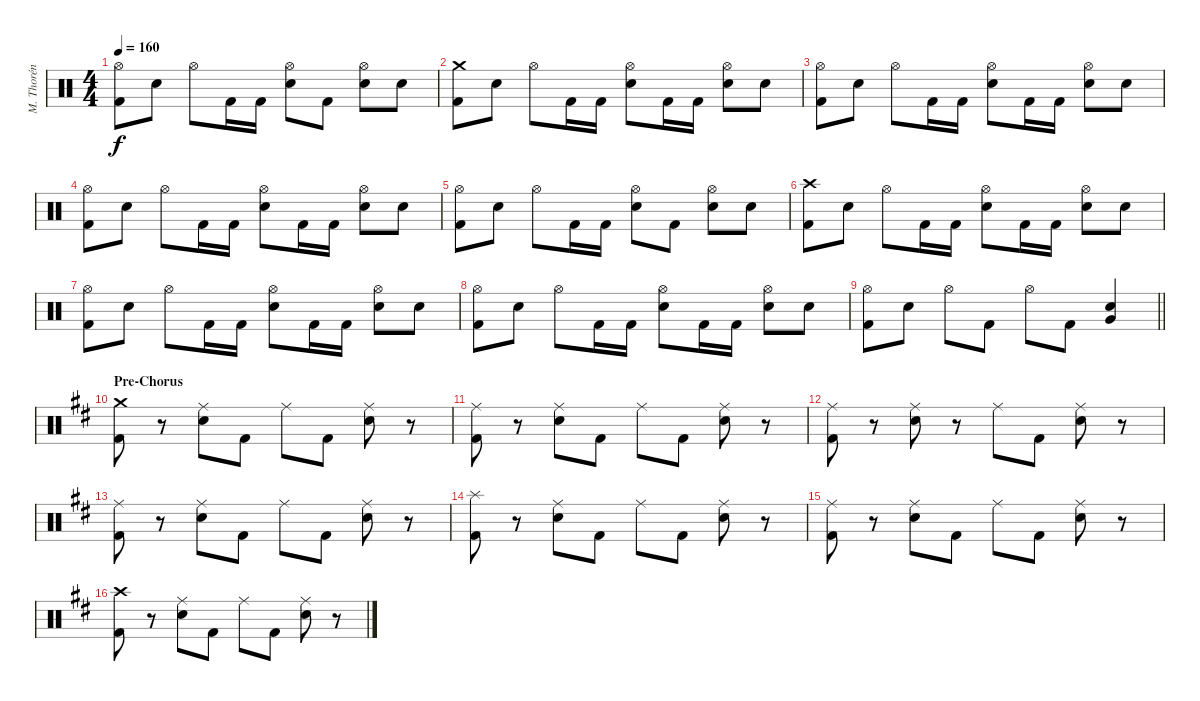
\track ("M. Thorén (Drums)" "M. Thorén ") {instrument percussion}
\staff {score}
\articulation defaults
\ts (4 4)
\tempo 160
\clef neutral
\ks c
("Hi-Hat (open)" "Kick (hit) 2").8{dy f} "Electric Snare (hit)".8 "Hi-Hat (open)".8 "Kick (hit) 2".16 "Kick (hit) 2".16 ("Hi-Hat (open)" "Electric Snare (hit)").8 "Kick (hit) 2".8 ("Hi-Hat (open)" "Electric Snare (hit)").8 "Electric Snare (hit)".8 |
("Crash medium (hit)" "Kick (hit) 2").8 "Electric Snare (hit)".8 "Hi-Hat (open)".8 "Kick (hit) 2".16 "Kick (hit) 2".16 ("Hi-Hat (open)" "Electric Snare (hit)").8 "Kick (hit) 2".16 "Kick (hit) 2".16 ("Hi-Hat (open)" "Electric Snare (hit)").8 "Electric Snare (hit)".8 |
("Hi-Hat (open)" "Kick (hit) 2").8 "Electric Snare (hit)".8 "Hi-Hat (open)".8 "Kick (hit) 2".16 "Kick (hit) 2".16 ("Hi-Hat (open)" "Electric Snare (hit)").8 "Kick (hit) 2".16 "Kick (hit) 2".16 ("Hi-Hat (open)" "Electric Snare (hit)").8 "Electric Snare (hit)".8 |
("Hi-Hat (open)" "Kick (hit) 2").8 "Electric Snare (hit)".8 "Hi-Hat (open)".8 "Kick (hit) 2".16 "Kick (hit) 2".16 ("Hi-Hat (open)" "Electric Snare (hit)").8 "Kick (hit) 2".16 "Kick (hit) 2".16 ("Hi-Hat (open)" "Electric Snare (hit)").8 "Electric Snare (hit)".8 |
("Hi-Hat (open)" "Kick (hit) 2").8 "Electric Snare (hit)".8 "Hi-Hat (open)".8 "Kick (hit) 2".16 "Kick (hit) 2".16 ("Hi-Hat (open)" "Electric Snare (hit)").8 "Kick (hit) 2".8 ("Hi-Hat (open)" "Electric Snare (hit)").8 "Electric Snare (hit)".8 |
("Crash high (hit)" "Kick (hit) 2").8 "Electric Snare (hit)".8 "Hi-Hat (open)".8 "Kick (hit) 2".16 "Kick (hit) 2".16 ("Hi-Hat (open)" "Electric Snare (hit)").8 "Kick (hit) 2".16 "Kick (hit) 2".16 ("Hi-Hat (open)" "Electric Snare (hit)").8 "Electric Snare (hit)".8 |
("Hi-Hat (open)" "Kick (hit) 2").8 "Electric Snare (hit)".8 "Hi-Hat (open)".8 "Kick (hit) 2".16 "Kick (hit) 2".16 ("Hi-Hat (open)" "Electric Snare (hit)").8 "Kick (hit) 2".16 "Kick (hit) 2".16 ("Hi-Hat (open)" "Electric Snare (hit)").8 "Electric Snare (hit)".8 |
("Hi-Hat (open)" "Kick (hit) 2").8 "Electric Snare (hit)".8 "Hi-Hat (open)".8 "Kick (hit) 2".16 "Kick (hit) 2".16 ("Hi-Hat (open)" "Electric Snare (hit)").8 "Kick (hit) 2".16 "Kick (hit) 2".16 ("Hi-Hat (open)" "Electric Snare (hit)").8 "Electric Snare (hit)".8 |
\barLineRight lightlight
("Hi-Hat (open)" "Kick (hit) 2").8 "Electric Snare (hit)".8 "Hi-Hat (open)".8 "Kick (hit) 2".8 "Hi-Hat (open)".8 "Kick (hit) 2".8 ("Electric Snare (hit)" "Very Low Tom (hit)").4 |
\section ("" "Pre-Chorus")
\ks bminor
("Crash medium (hit)" "Kick (hit) 2").8 r.8 ("Ride (middle)" "Electric Snare (hit)").8 "Kick (hit) 2".8 "Ride (middle)".8 "Kick (hit) 2".8 ("Ride (middle)" "Electric Snare (hit)").8 r.8 |
("Ride (middle)" "Kick (hit) 2").8 r.8 ("Ride (middle)" "Electric Snare (hit)").8 "Kick (hit) 2".8 "Ride (middle)".8 "Kick (hit) 2".8 ("Ride (middle)" "Electric Snare (hit)").8 r.8 |
("Ride (middle)" "Kick (hit) 2").8 r.8 ("Ride (middle)" "Electric Snare (hit)").8 r.8 "Ride (middle)".8 "Kick (hit) 2".8 ("Ride (middle)" "Electric Snare (hit)").8 r.8 |
("Ride (middle)" "Kick (hit) 2").8 r.8 ("Ride (middle)" "Electric Snare (hit)").8 "Kick (hit) 2".8 "Ride (middle)".8 "Kick (hit) 2".8 ("Ride (middle)" "Electric Snare (hit)").8 r.8 |
("Splash (hit)" "Kick (hit) 2").8 r.8 ("Ride (middle)" "Electric Snare (hit)").8 "Kick (hit) 2".8 "Ride (middle)".8 "Kick (hit) 2".8 ("Ride (middle)" "Electric Snare (hit)").8 r.8 |
("Ride (middle)" "Kick (hit) 2").8 r.8 ("Ride (middle)" "Electric Snare (hit)").8 "Kick (hit) 2".8 "Ride (middle)".8 "Kick (hit) 2".8 ("Ride (middle)" "Electric Snare (hit)").8 r.8 |
("Crash high (hit)" "Kick (hit) 2").8 r.8 ("Ride (middle)" "Electric Snare (hit)").8 "Kick (hit) 2".8 "Ride (middle)".8 "Kick (hit) 2".8 ("Ride (middle)" "Electric Snare (hit)").8 r.8
